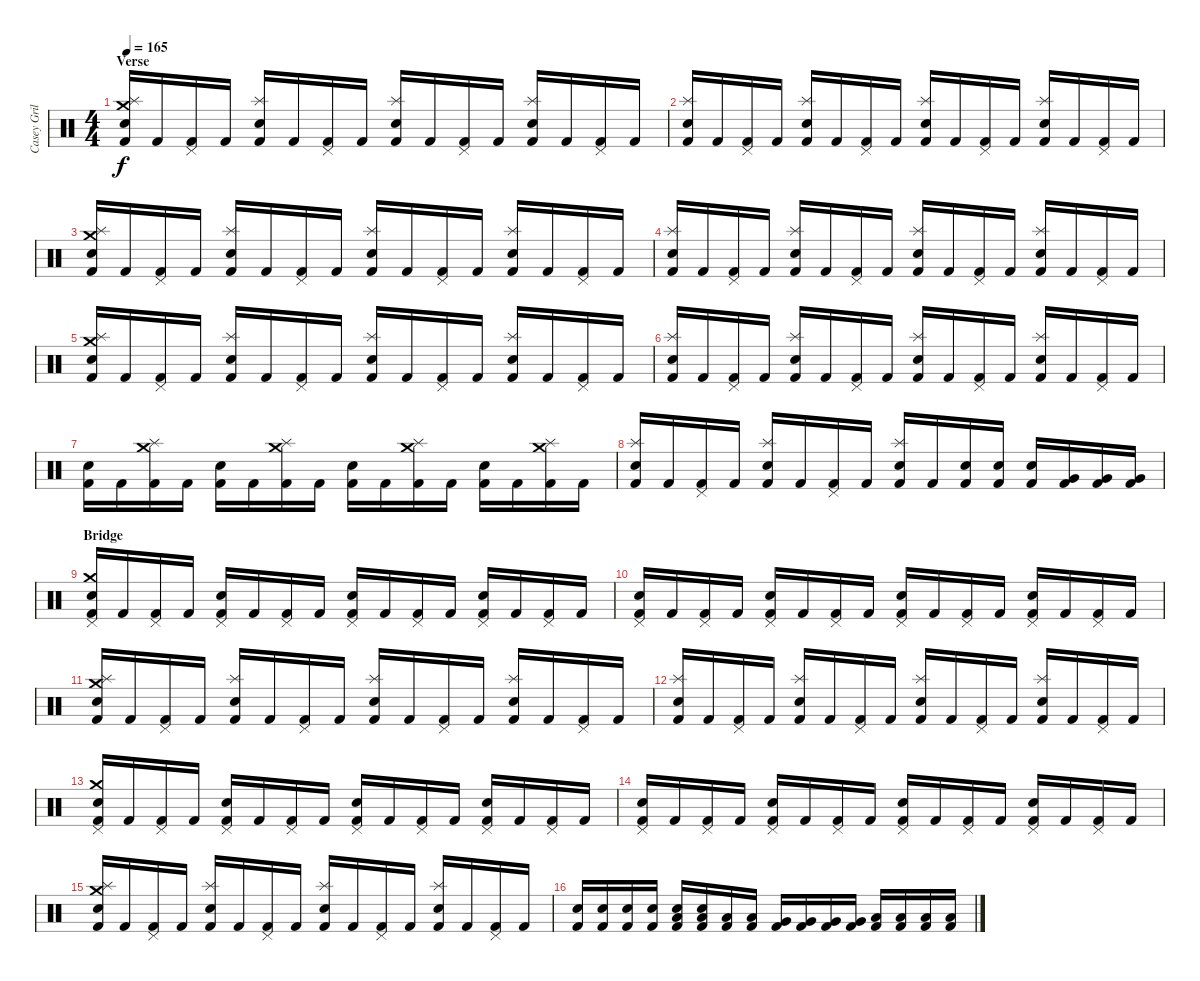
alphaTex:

\track ("Casey Grillo" "Casey Gril") {instrument percussion}
\staff {score}
\articulation defaults
\ts (4 4)
\section ("" "Verse")
\tempo 165
\clef neutral
\ks c
("Electric Snare (hit)" "Splash (hit)" "Crash medium (hit)" "Kick (hit) 2").16{dy f} "Kick (hit) 2".16 ("Pedal Hi-Hat (hit)" "Kick (hit) 2").16 "Kick (hit) 2".16 ("Electric Snare (hit)" "Splash (hit)" "Kick (hit) 2").16 "Kick (hit) 2".16 ("Pedal Hi-Hat (hit)" "Kick (hit) 2").16 "Kick (hit) 2".16 ("Electric Snare (hit)" "Splash (hit)" "Kick (hit) 2").16 "Kick (hit) 2".16 ("Pedal Hi-Hat (hit)" "Kick (hit) 2").16 "Kick (hit) 2".16 ("Electric Snare (hit)" "Splash (hit)" "Kick (hit) 2").16 "Kick (hit) 2".16 ("Pedal Hi-Hat (hit)" "Kick (hit) 2").16 "Kick (hit) 2".16 |
("Electric Snare (hit)" "Splash (hit)" "Kick (hit) 2").16 "Kick (hit) 2".16 ("Pedal Hi-Hat (hit)" "Kick (hit) 2").16 "Kick (hit) 2".16 ("Electric Snare (hit)" "Splash (hit)" "Kick (hit) 2").16 "Kick (hit) 2".16 ("Pedal Hi-Hat (hit)" "Kick (hit) 2").16 "Kick (hit) 2".16 ("Electric Snare (hit)" "Splash (hit)" "Kick (hit) 2").16 "Kick (hit) 2".16 ("Pedal Hi-Hat (hit)" "Kick (hit) 2").16 "Kick (hit) 2".16 ("Electric Snare (hit)" "Splash (hit)" "Kick (hit) 2").16 "Kick (hit) 2".16 ("Pedal Hi-Hat (hit)" "Kick (hit) 2").16 "Kick (hit) 2".16 |
("Electric Snare (hit)" "Splash (hit)" "Crash medium (hit)" "Kick (hit) 2").16 "Kick (hit) 2".16 ("Pedal Hi-Hat (hit)" "Kick (hit) 2").16 "Kick (hit) 2".16 ("Electric Snare (hit)" "Splash (hit)" "Kick (hit) 2").16 "Kick (hit) 2".16 ("Pedal Hi-Hat (hit)" "Kick (hit) 2").16 "Kick (hit) 2".16 ("Electric Snare (hit)" "Splash (hit)" "Kick (hit) 2").16 "Kick (hit) 2".16 ("Pedal Hi-Hat (hit)" "Kick (hit) 2").16 "Kick (hit) 2".16 ("Electric Snare (hit)" "Splash (hit)" "Kick (hit) 2").16 "Kick (hit) 2".16 ("Pedal Hi-Hat (hit)" "Kick (hit) 2").16 "Kick (hit) 2".16 |
("Electric Snare (hit)" "Splash (hit)" "Kick (hit) 2").16 "Kick (hit) 2".16 ("Pedal Hi-Hat (hit)" "Kick (hit) 2").16 "Kick (hit) 2".16 ("Electric Snare (hit)" "Splash (hit)" "Kick (hit) 2").16 "Kick (hit) 2".16 ("Pedal Hi-Hat (hit)" "Kick (hit) 2").16 "Kick (hit) 2".16 ("Electric Snare (hit)" "Splash (hit)" "Kick (hit) 2").16 "Kick (hit) 2".16 ("Pedal Hi-Hat (hit)" "Kick (hit) 2").16 "Kick (hit) 2".16 ("Electric Snare (hit)" "Splash (hit)" "Kick (hit) 2").16 "Kick (hit) 2".16 ("Pedal Hi-Hat (hit)" "Kick (hit) 2").16 "Kick (hit) 2".16 |
("Electric Snare (hit)" "Splash (hit)" "Crash medium (hit)" "Kick (hit) 2").16 "Kick (hit) 2".16 ("Pedal Hi-Hat (hit)" "Kick (hit) 2").16 "Kick (hit) 2".16 ("Electric Snare (hit)" "Splash (hit)" "Kick (hit) 2").16 "Kick (hit) 2".16 ("Pedal Hi-Hat (hit)" "Kick (hit) 2").16 "Kick (hit) 2".16 ("Electric Snare (hit)" "Splash (hit)" "Kick (hit) 2").16 "Kick (hit) 2".16 ("Pedal Hi-Hat (hit)" "Kick (hit) 2").16 "Kick (hit) 2".16 ("Electric Snare (hit)" "Splash (hit)" "Kick (hit) 2").16 "Kick (hit) 2".16 ("Pedal Hi-Hat (hit)" "Kick (hit) 2").16 "Kick (hit) 2".16 |
("Electric Snare (hit)" "Splash (hit)" "Kick (hit) 2").16 "Kick (hit) 2".16 ("Pedal Hi-Hat (hit)" "Kick (hit) 2").16 "Kick (hit) 2".16 ("Electric Snare (hit)" "Splash (hit)" "Kick (hit) 2").16 "Kick (hit) 2".16 ("Pedal Hi-Hat (hit)" "Kick (hit) 2").16 "Kick (hit) 2".16 ("Electric Snare (hit)" "Splash (hit)" "Kick (hit) 2").16 "Kick (hit) 2".16 ("Pedal Hi-Hat (hit)" "Kick (hit) 2").16 "Kick (hit) 2".16 ("Electric Snare (hit)" "Splash (hit)" "Kick (hit) 2").16 "Kick (hit) 2".16 ("Pedal Hi-Hat (hit)" "Kick (hit) 2").16 "Kick (hit) 2".16 |
("Electric Snare (hit)" "Kick (hit) 2").16 "Kick (hit) 2".16 ("Crash medium (hit)" "Splash (hit)" "Kick (hit) 2").16 "Kick (hit) 2".16 ("Electric Snare (hit)" "Kick (hit) 2").16 "Kick (hit) 2".16 ("Splash (hit)" "Crash medium (hit)" "Kick (hit) 2").16 "Kick (hit) 2".16 ("Electric Snare (hit)" "Kick (hit) 2").16 "Kick (hit) 2".16 ("Splash (hit)" "Crash medium (hit)" "Kick (hit) 2").16 "Kick (hit) 2".16 ("Electric Snare (hit)" "Kick (hit) 2").16 "Kick (hit) 2".16 ("Crash medium (hit)" "Splash (hit)" "Kick (hit) 2").16 "Kick (hit) 2".16 |
("Electric Snare (hit)" "Splash (hit)" "Kick (hit) 2").16 "Kick (hit) 2".16 ("Pedal Hi-Hat (hit)" "Kick (hit) 2").16 "Kick (hit) 2".16 ("Electric Snare (hit)" "Splash (hit)" "Kick (hit) 2").16 "Kick (hit) 2".16 ("Pedal Hi-Hat (hit)" "Kick (hit) 2").16 "Kick (hit) 2".16 ("Electric Snare (hit)" "Splash (hit)" "Kick (hit) 2").16 "Kick (hit) 2".16 ("Electric Snare (hit)" "Kick (hit) 2").16 ("Electric Snare (hit)" "Kick (hit) 2").16 ("Electric Snare (hit)" "Kick (hit) 2").16 ("Very Low Tom (hit)" "Kick (hit) 2").16 ("Very Low Tom (hit)" "Kick (hit) 2").16 ("Very Low Tom (hit)" "Kick (hit) 2").16 |
\section ("" "Bridge")
("Electric Snare (hit)" "Pedal Hi-Hat (hit)" "Crash medium (hit)" "Kick (hit) 2").16 "Kick (hit) 2".16 ("Pedal Hi-Hat (hit)" "Kick (hit) 2").16 "Kick (hit) 2".16 ("Electric Snare (hit)" "Pedal Hi-Hat (hit)" "Kick (hit) 2").16 "Kick (hit) 2".16 ("Pedal Hi-Hat (hit)" "Kick (hit) 2").16 "Kick (hit) 2".16 ("Electric Snare (hit)" "Pedal Hi-Hat (hit)" "Kick (hit) 2").16 "Kick (hit) 2".16 ("Pedal Hi-Hat (hit)" "Kick (hit) 2").16 "Kick (hit) 2".16 ("Electric Snare (hit)" "Pedal Hi-Hat (hit)" "Kick (hit) 2").16 "Kick (hit) 2".16 ("Pedal Hi-Hat (hit)" "Kick (hit) 2").16 "Kick (hit) 2".16 |
("Electric Snare (hit)" "Pedal Hi-Hat (hit)" "Kick (hit) 2").16 "Kick (hit) 2".16 ("Pedal Hi-Hat (hit)" "Kick (hit) 2").16 "Kick (hit) 2".16 ("Electric Snare (hit)" "Pedal Hi-Hat (hit)" "Kick (hit) 2").16 "Kick (hit) 2".16 ("Pedal Hi-Hat (hit)" "Kick (hit) 2").16 "Kick (hit) 2".16 ("Electric Snare (hit)" "Pedal Hi-Hat (hit)" "Kick (hit) 2").16 "Kick (hit) 2".16 ("Pedal Hi-Hat (hit)" "Kick (hit) 2").16 "Kick (hit) 2".16 ("Electric Snare (hit)" "Pedal Hi-Hat (hit)" "Kick (hit) 2").16 "Kick (hit) 2".16 ("Pedal Hi-Hat (hit)" "Kick (hit) 2").16 "Kick (hit) 2".16 |
("Electric Snare (hit)" "Splash (hit)" "Crash medium (hit)" "Kick (hit) 2").16 "Kick (hit) 2".16 ("Pedal Hi-Hat (hit)" "Kick (hit) 2").16 "Kick (hit) 2".16 ("Electric Snare (hit)" "Splash (hit)" "Kick (hit) 2").16 "Kick (hit) 2".16 ("Pedal Hi-Hat (hit)" "Kick (hit) 2").16 "Kick (hit) 2".16 ("Electric Snare (hit)" "Splash (hit)" "Kick (hit) 2").16 "Kick (hit) 2".16 ("Pedal Hi-Hat (hit)" "Kick (hit) 2").16 "Kick (hit) 2".16 ("Electric Snare (hit)" "Splash (hit)" "Kick (hit) 2").16 "Kick (hit) 2".16 ("Pedal Hi-Hat (hit)" "Kick (hit) 2").16 "Kick (hit) 2".16 |
("Electric Snare (hit)" "Splash (hit)" "Kick (hit) 2").16 "Kick (hit) 2".16 ("Pedal Hi-Hat (hit)" "Kick (hit) 2").16 "Kick (hit) 2".16 ("Electric Snare (hit)" "Splash (hit)" "Kick (hit) 2").16 "Kick (hit) 2".16 ("Pedal Hi-Hat (hit)" "Kick (hit) 2").16 "Kick (hit) 2".16 ("Electric Snare (hit)" "Splash (hit)" "Kick (hit) 2").16 "Kick (hit) 2".16 ("Pedal Hi-Hat (hit)" "Kick (hit) 2").16 "Kick (hit) 2".16 ("Electric Snare (hit)" "Splash (hit)" "Kick (hit) 2").16 "Kick (hit) 2".16 ("Pedal Hi-Hat (hit)" "Kick (hit) 2").16 "Kick (hit) 2".16 |
("Electric Snare (hit)" "Pedal Hi-Hat (hit)" "Crash medium (hit)" "Kick (hit) 2").16 "Kick (hit) 2".16 ("Pedal Hi-Hat (hit)" "Kick (hit) 2").16 "Kick (hit) 2".16 ("Electric Snare (hit)" "Pedal Hi-Hat (hit)" "Kick (hit) 2").16 "Kick (hit) 2".16 ("Pedal Hi-Hat (hit)" "Kick (hit) 2").16 "Kick (hit) 2".16 ("Electric Snare (hit)" "Pedal Hi-Hat (hit)" "Kick (hit) 2").16 "Kick (hit) 2".16 ("Pedal Hi-Hat (hit)" "Kick (hit) 2").16 "Kick (hit) 2".16 ("Electric Snare (hit)" "Pedal Hi-Hat (hit)" "Kick (hit) 2").16 "Kick (hit) 2".16 ("Pedal Hi-Hat (hit)" "Kick (hit) 2").16 "Kick (hit) 2".16 |
("Electric Snare (hit)" "Pedal Hi-Hat (hit)" "Kick (hit) 2").16 "Kick (hit) 2".16 ("Pedal Hi-Hat (hit)" "Kick (hit) 2").16 "Kick (hit) 2".16 ("Electric Snare (hit)" "Pedal Hi-Hat (hit)" "Kick (hit) 2").16 "Kick (hit) 2".16 ("Pedal Hi-Hat (hit)" "Kick (hit) 2").16 "Kick (hit) 2".16 ("Electric Snare (hit)" "Pedal Hi-Hat (hit)" "Kick (hit) 2").16 "Kick (hit) 2".16 ("Pedal Hi-Hat (hit)" "Kick (hit) 2").16 "Kick (hit) 2".16 ("Electric Snare (hit)" "Pedal Hi-Hat (hit)" "Kick (hit) 2").16 "Kick (hit) 2".16 ("Pedal Hi-Hat (hit)" "Kick (hit) 2").16 "Kick (hit) 2".16 |
("Electric Snare (hit)" "Splash (hit)" "Crash medium (hit)" "Kick (hit) 2").16 "Kick (hit) 2".16 ("Pedal Hi-Hat (hit)" "Kick (hit) 2").16 "Kick (hit) 2".16 ("Electric Snare (hit)" "Splash (hit)" "Kick (hit) 2").16 "Kick (hit) 2".16 ("Pedal Hi-Hat (hit)" "Kick (hit) 2").16 "Kick (hit) 2".16 ("Electric Snare (hit)" "Splash (hit)" "Kick (hit) 2").16 "Kick (hit) 2".16 ("Pedal Hi-Hat (hit)" "Kick (hit) 2").16 "Kick (hit) 2".16 ("Electric Snare (hit)" "Splash (hit)" "Kick (hit) 2").16 "Kick (hit) 2".16 ("Pedal Hi-Hat (hit)" "Kick (hit) 2").16 "Kick (hit) 2".16 |
("Electric Snare (hit)" "Kick (hit) 2").16 ("Electric Snare (hit)" "Kick (hit) 2").16 ("Electric Snare (hit)" "Kick (hit) 2").16 ("Electric Snare (hit)" "Kick (hit) 2").16 ("Electric Snare (hit)" "Low Tom (hit)" "Kick (hit) 2").16 ("Electric Snare (hit)" "Low Tom (hit)" "Kick (hit) 2").16 ("Low Tom (hit)" "Kick (hit) 2").16 ("Low Tom (hit)" "Kick (hit) 2").16 ("Very Low Tom (hit)" "Kick (hit) 2").16 ("Very Low Tom (hit)" "Kick (hit) 2").16 ("Very Low Tom (hit)" "Kick (hit) 2").16 ("Very Low Tom (hit)" "Kick (hit) 2").16 ("Low Floor Tom (hit)" "Kick (hit) 2").16 ("Low Floor Tom (hit)" "Kick (hit) 2").16 ("Low Floor Tom (hit)" "Kick (hit) 2").16 ("Low Floor Tom (hit)" "Kick (hit) 2").16
